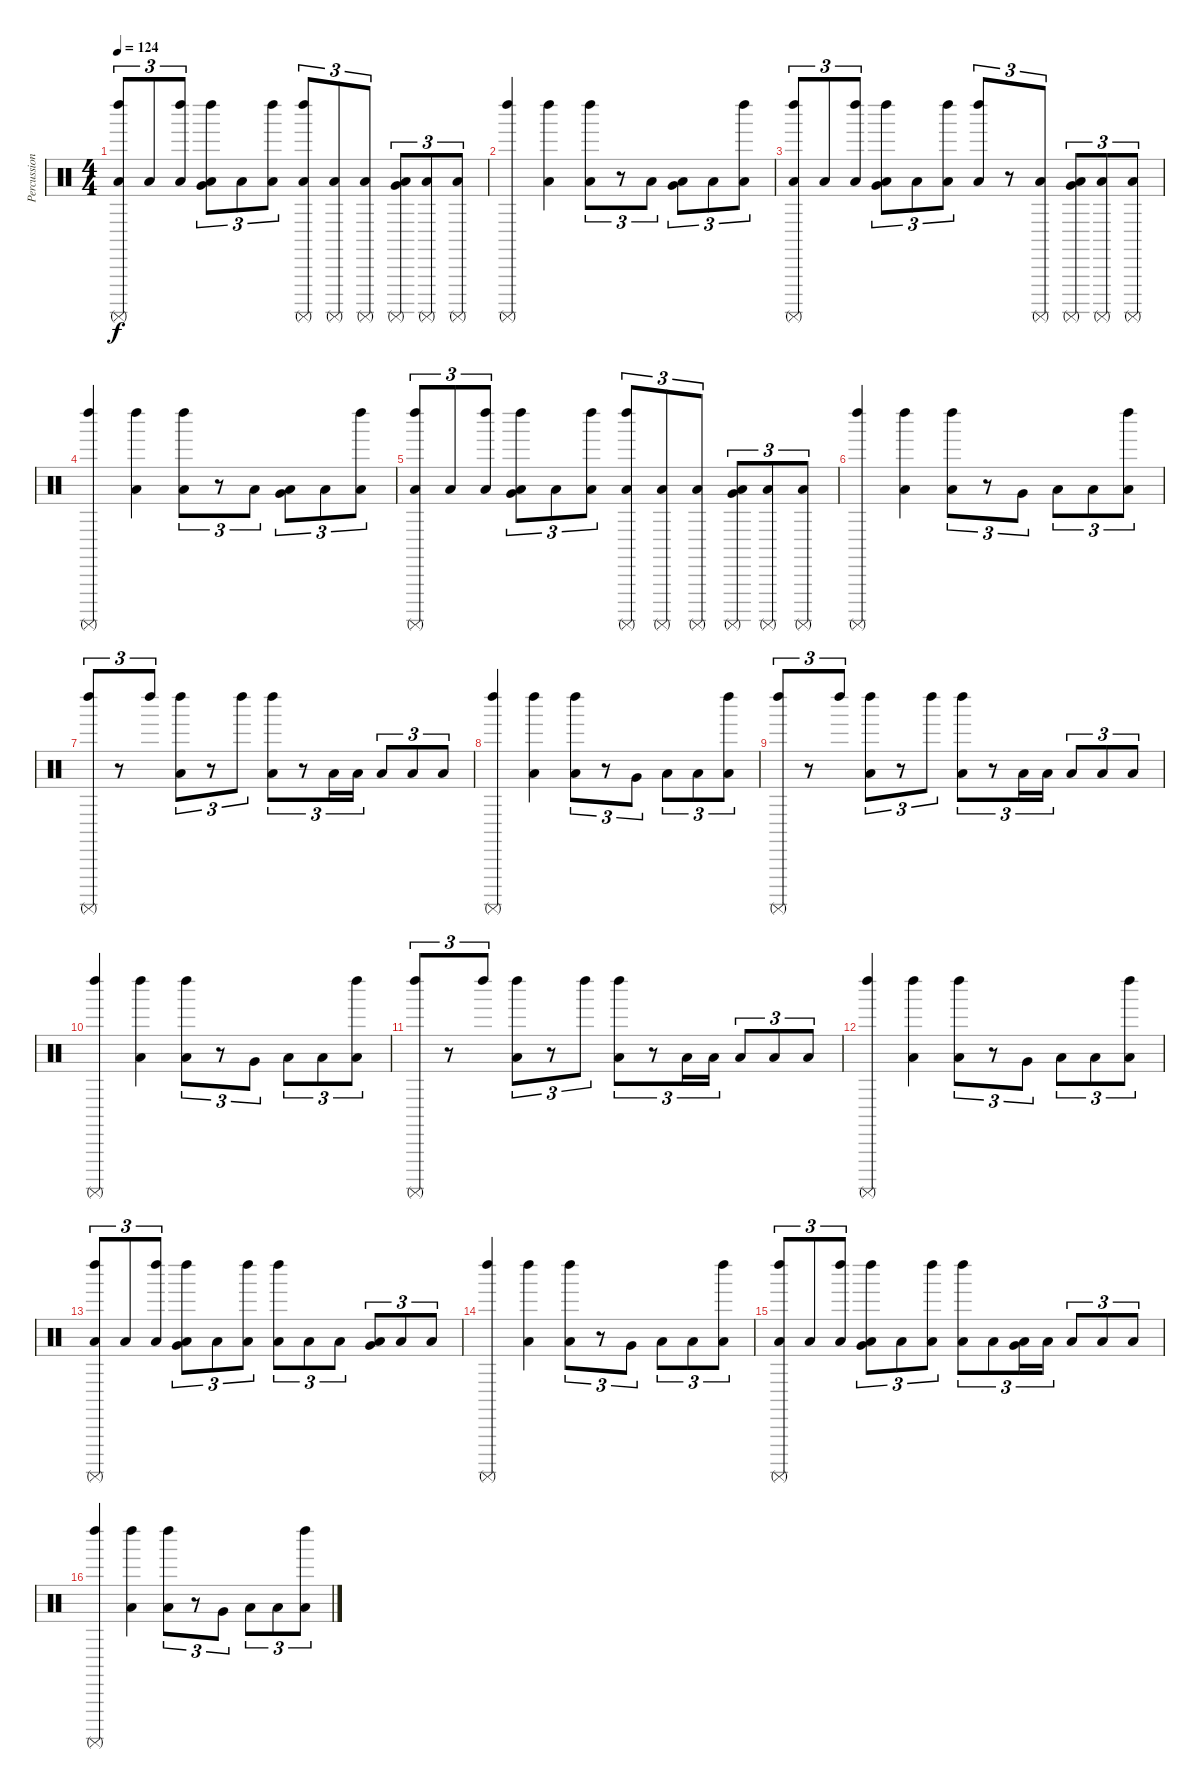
\track ("Percussion" "Percussion") {instrument percussion}
\staff {score}
\articulation defaults
\ts (4 4)
\tempo 124
\clef neutral
\ks c
("Left Maraca (hit)" "Low Floor Tom (hit)" "Surdo (mute)").8{tu (3 2) dy f} "Low Floor Tom (hit)".8{tu (3 2)} ("Left Maraca (hit)" "Low Floor Tom (hit)").8{tu (3 2)} ("Left Maraca (hit)" "Very Low Tom (hit)" "Low Floor Tom (hit)").8{tu (3 2)} "Low Floor Tom (hit)".8{tu (3 2)} ("Left Maraca (hit)" "Low Floor Tom (hit)").8{tu (3 2)} ("Left Maraca (hit)" "Low Floor Tom (hit)" "Surdo (mute)").8{tu (3 2)} ("Low Floor Tom (hit)" "Surdo (mute)").8{tu (3 2)} ("Low Floor Tom (hit)" "Surdo (mute)").8{tu (3 2)} ("Very Low Tom (hit)" "Low Floor Tom (hit)" "Surdo (mute)").8{tu (3 2)} ("Low Floor Tom (hit)" "Surdo (mute)").8{tu (3 2)} ("Low Floor Tom (hit)" "Surdo (mute)").8{tu (3 2)} |
("Left Maraca (hit)" "Surdo (mute)").4 ("Left Maraca (hit)" "Low Floor Tom (hit)").4 ("Left Maraca (hit)" "Low Floor Tom (hit)").8{tu (3 2)} r.8{tu (3 2)} "Low Floor Tom (hit)".8{tu (3 2)} ("Very Low Tom (hit)" "Low Floor Tom (hit)").8{tu (3 2)} "Low Floor Tom (hit)".8{tu (3 2)} ("Left Maraca (hit)" "Low Floor Tom (hit)").8{tu (3 2)} |
("Left Maraca (hit)" "Low Floor Tom (hit)" "Surdo (mute)").8{tu (3 2)} "Low Floor Tom (hit)".8{tu (3 2)} ("Left Maraca (hit)" "Low Floor Tom (hit)").8{tu (3 2)} ("Left Maraca (hit)" "Very Low Tom (hit)" "Low Floor Tom (hit)").8{tu (3 2)} "Low Floor Tom (hit)".8{tu (3 2)} ("Left Maraca (hit)" "Low Floor Tom (hit)").8{tu (3 2)} ("Left Maraca (hit)" "Low Floor Tom (hit)").8{tu (3 2)} r.8{tu (3 2)} ("Low Floor Tom (hit)" "Surdo (mute)").8{tu (3 2)} ("Very Low Tom (hit)" "Low Floor Tom (hit)" "Surdo (mute)").8{tu (3 2)} ("Low Floor Tom (hit)" "Surdo (mute)").8{tu (3 2)} ("Low Floor Tom (hit)" "Surdo (mute)").8{tu (3 2)} |
("Left Maraca (hit)" "Surdo (mute)").4 ("Left Maraca (hit)" "Low Floor Tom (hit)").4 ("Left Maraca (hit)" "Low Floor Tom (hit)").8{tu (3 2)} r.8{tu (3 2)} "Low Floor Tom (hit)".8{tu (3 2)} ("Very Low Tom (hit)" "Low Floor Tom (hit)").8{tu (3 2)} "Low Floor Tom (hit)".8{tu (3 2)} ("Left Maraca (hit)" "Low Floor Tom (hit)").8{tu (3 2)} |
("Left Maraca (hit)" "Low Floor Tom (hit)" "Surdo (mute)").8{tu (3 2)} "Low Floor Tom (hit)".8{tu (3 2)} ("Left Maraca (hit)" "Low Floor Tom (hit)").8{tu (3 2)} ("Left Maraca (hit)" "Very Low Tom (hit)" "Low Floor Tom (hit)").8{tu (3 2)} "Low Floor Tom (hit)".8{tu (3 2)} ("Left Maraca (hit)" "Low Floor Tom (hit)").8{tu (3 2)} ("Left Maraca (hit)" "Low Floor Tom (hit)" "Surdo (mute)").8{tu (3 2)} ("Low Floor Tom (hit)" "Surdo (mute)").8{tu (3 2)} ("Low Floor Tom (hit)" "Surdo (mute)").8{tu (3 2)} ("Very Low Tom (hit)" "Low Floor Tom (hit)" "Surdo (mute)").8{tu (3 2)} ("Low Floor Tom (hit)" "Surdo (mute)").8{tu (3 2)} ("Low Floor Tom (hit)" "Surdo (mute)").8{tu (3 2)} |
("Left Maraca (hit)" "Surdo (mute)").4 ("Left Maraca (hit)" "Low Floor Tom (hit)").4 ("Left Maraca (hit)" "Low Floor Tom (hit)").8{tu (3 2)} r.8{tu (3 2)} "Very Low Tom (hit)".8{tu (3 2)} "Low Floor Tom (hit)".8{tu (3 2)} "Low Floor Tom (hit)".8{tu (3 2)} ("Left Maraca (hit)" "Low Floor Tom (hit)").8{tu (3 2)} |
("Left Maraca (hit)" "Surdo (mute)").8{tu (3 2)} r.8{tu (3 2)} "Left Maraca (hit)".8{tu (3 2)} ("Left Maraca (hit)" "Low Floor Tom (hit)").8{tu (3 2)} r.8{tu (3 2)} "Left Maraca (hit)".8{tu (3 2)} ("Left Maraca (hit)" "Low Floor Tom (hit)").8{tu (3 2)} r.8{tu (3 2)} "Low Floor Tom (hit)".16{tu (3 2)} "Low Floor Tom (hit)".16{tu (3 2)} "Low Floor Tom (hit)".8{tu (3 2)} "Low Floor Tom (hit)".8{tu (3 2)} "Low Floor Tom (hit)".8{tu (3 2)} |
("Left Maraca (hit)" "Surdo (mute)").4 ("Left Maraca (hit)" "Low Floor Tom (hit)").4 ("Left Maraca (hit)" "Low Floor Tom (hit)").8{tu (3 2)} r.8{tu (3 2)} "Very Low Tom (hit)".8{tu (3 2)} "Low Floor Tom (hit)".8{tu (3 2)} "Low Floor Tom (hit)".8{tu (3 2)} ("Left Maraca (hit)" "Low Floor Tom (hit)").8{tu (3 2)} |
("Left Maraca (hit)" "Surdo (mute)").8{tu (3 2)} r.8{tu (3 2)} "Left Maraca (hit)".8{tu (3 2)} ("Left Maraca (hit)" "Low Floor Tom (hit)").8{tu (3 2)} r.8{tu (3 2)} "Left Maraca (hit)".8{tu (3 2)} ("Left Maraca (hit)" "Low Floor Tom (hit)").8{tu (3 2)} r.8{tu (3 2)} "Low Floor Tom (hit)".16{tu (3 2)} "Low Floor Tom (hit)".16{tu (3 2)} "Low Floor Tom (hit)".8{tu (3 2)} "Low Floor Tom (hit)".8{tu (3 2)} "Low Floor Tom (hit)".8{tu (3 2)} |
("Left Maraca (hit)" "Surdo (mute)").4 ("Left Maraca (hit)" "Low Floor Tom (hit)").4 ("Left Maraca (hit)" "Low Floor Tom (hit)").8{tu (3 2)} r.8{tu (3 2)} "Very Low Tom (hit)".8{tu (3 2)} "Low Floor Tom (hit)".8{tu (3 2)} "Low Floor Tom (hit)".8{tu (3 2)} ("Left Maraca (hit)" "Low Floor Tom (hit)").8{tu (3 2)} |
("Left Maraca (hit)" "Surdo (mute)").8{tu (3 2)} r.8{tu (3 2)} "Left Maraca (hit)".8{tu (3 2)} ("Left Maraca (hit)" "Low Floor Tom (hit)").8{tu (3 2)} r.8{tu (3 2)} "Left Maraca (hit)".8{tu (3 2)} ("Left Maraca (hit)" "Low Floor Tom (hit)").8{tu (3 2)} r.8{tu (3 2)} "Low Floor Tom (hit)".16{tu (3 2)} "Low Floor Tom (hit)".16{tu (3 2)} "Low Floor Tom (hit)".8{tu (3 2)} "Low Floor Tom (hit)".8{tu (3 2)} "Low Floor Tom (hit)".8{tu (3 2)} |
("Left Maraca (hit)" "Surdo (mute)").4 ("Left Maraca (hit)" "Low Floor Tom (hit)").4 ("Left Maraca (hit)" "Low Floor Tom (hit)").8{tu (3 2)} r.8{tu (3 2)} "Very Low Tom (hit)".8{tu (3 2)} "Low Floor Tom (hit)".8{tu (3 2)} "Low Floor Tom (hit)".8{tu (3 2)} ("Left Maraca (hit)" "Low Floor Tom (hit)").8{tu (3 2)} |
("Left Maraca (hit)" "Low Floor Tom (hit)" "Surdo (mute)").8{tu (3 2)} "Low Floor Tom (hit)".8{tu (3 2)} ("Left Maraca (hit)" "Low Floor Tom (hit)").8{tu (3 2)} ("Left Maraca (hit)" "Very Low Tom (hit)" "Low Floor Tom (hit)").8{tu (3 2)} "Low Floor Tom (hit)".8{tu (3 2)} ("Left Maraca (hit)" "Low Floor Tom (hit)").8{tu (3 2)} ("Left Maraca (hit)" "Low Floor Tom (hit)").8{tu (3 2)} "Low Floor Tom (hit)".8{tu (3 2)} "Low Floor Tom (hit)".8{tu (3 2)} ("Very Low Tom (hit)" "Low Floor Tom (hit)").8{tu (3 2)} "Low Floor Tom (hit)".8{tu (3 2)} "Low Floor Tom (hit)".8{tu (3 2)} |
("Left Maraca (hit)" "Surdo (mute)").4 ("Left Maraca (hit)" "Low Floor Tom (hit)").4 ("Left Maraca (hit)" "Low Floor Tom (hit)").8{tu (3 2)} r.8{tu (3 2)} "Very Low Tom (hit)".8{tu (3 2)} "Low Floor Tom (hit)".8{tu (3 2)} "Low Floor Tom (hit)".8{tu (3 2)} ("Left Maraca (hit)" "Low Floor Tom (hit)").8{tu (3 2)} |
("Left Maraca (hit)" "Low Floor Tom (hit)" "Surdo (mute)").8{tu (3 2)} "Low Floor Tom (hit)".8{tu (3 2)} ("Left Maraca (hit)" "Low Floor Tom (hit)").8{tu (3 2)} ("Left Maraca (hit)" "Very Low Tom (hit)" "Low Floor Tom (hit)").8{tu (3 2)} "Low Floor Tom (hit)".8{tu (3 2)} ("Left Maraca (hit)" "Low Floor Tom (hit)").8{tu (3 2)} ("Left Maraca (hit)" "Low Floor Tom (hit)").8{tu (3 2)} "Low Floor Tom (hit)".8{tu (3 2)} ("Very Low Tom (hit)" "Low Floor Tom (hit)").16{tu (3 2)} "Low Floor Tom (hit)".16{tu (3 2)} "Low Floor Tom (hit)".8{tu (3 2)} "Low Floor Tom (hit)".8{tu (3 2)} "Low Floor Tom (hit)".8{tu (3 2)} |
("Left Maraca (hit)" "Surdo (mute)").4 ("Left Maraca (hit)" "Low Floor Tom (hit)").4 ("Left Maraca (hit)" "Low Floor Tom (hit)").8{tu (3 2)} r.8{tu (3 2)} "Very Low Tom (hit)".8{tu (3 2)} "Low Floor Tom (hit)".8{tu (3 2)} "Low Floor Tom (hit)".8{tu (3 2)} ("Left Maraca (hit)" "Low Floor Tom (hit)").8{tu (3 2)}
